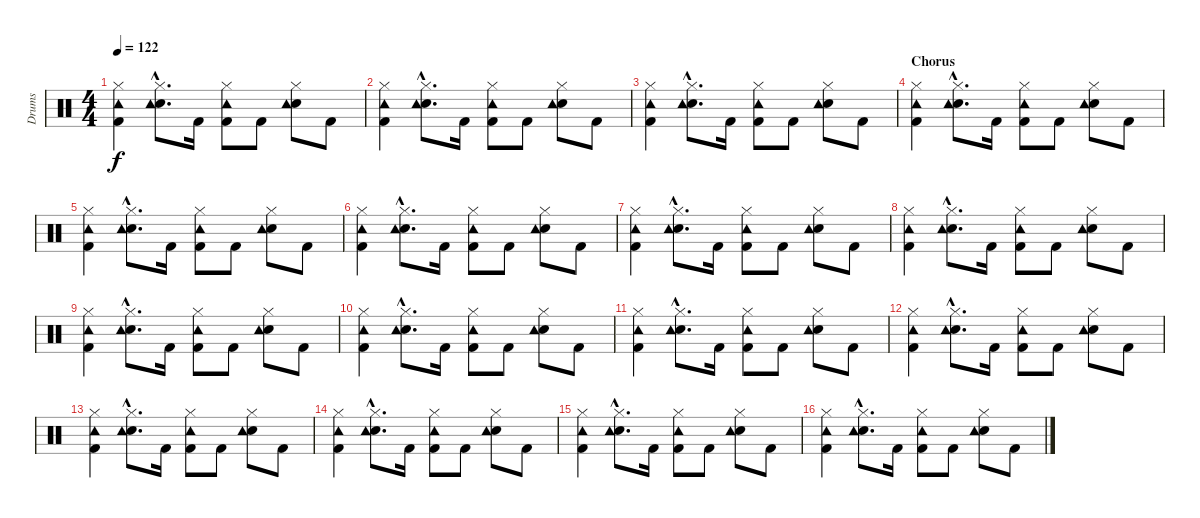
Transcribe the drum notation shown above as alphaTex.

\track ("Drums" "Drums") {instrument percussion}
\staff {score}
\articulation defaults
\ts (4 4)
\tempo 122
\clef neutral
\ks c
("Hi-Hat (closed)" "Kick (hit) 2" "Tambourine (hit)").4{dy f} ("Hi-Hat (closed)"{hac} "Electric Snare (hit)"{hac} "Tambourine (hit)"{hac}).8{d} "Kick (hit) 2".16 ("Hi-Hat (closed)" "Kick (hit) 2" "Tambourine (hit)").8 "Kick (hit) 2".8 ("Hi-Hat (closed)" "Electric Snare (hit)" "Tambourine (hit)").8 "Kick (hit) 2".8 |
("Hi-Hat (closed)" "Kick (hit) 2" "Tambourine (hit)").4 ("Hi-Hat (closed)"{hac} "Electric Snare (hit)"{hac} "Tambourine (hit)"{hac}).8{d} "Kick (hit) 2".16 ("Hi-Hat (closed)" "Kick (hit) 2" "Tambourine (hit)").8 "Kick (hit) 2".8 ("Hi-Hat (closed)" "Electric Snare (hit)" "Tambourine (hit)").8 "Kick (hit) 2".8 |
("Hi-Hat (closed)" "Kick (hit) 2" "Tambourine (hit)").4 ("Hi-Hat (closed)"{hac} "Electric Snare (hit)"{hac} "Tambourine (hit)"{hac}).8{d} "Kick (hit) 2".16 ("Hi-Hat (closed)" "Kick (hit) 2" "Tambourine (hit)").8 "Kick (hit) 2".8 ("Hi-Hat (closed)" "Electric Snare (hit)" "Tambourine (hit)").8 "Kick (hit) 2".8 |
\section ("" "Chorus")
("Hi-Hat (closed)" "Kick (hit) 2" "Tambourine (hit)").4 ("Hi-Hat (closed)"{hac} "Electric Snare (hit)"{hac} "Tambourine (hit)"{hac}).8{d} "Kick (hit) 2".16 ("Hi-Hat (closed)" "Kick (hit) 2" "Tambourine (hit)").8 "Kick (hit) 2".8 ("Hi-Hat (closed)" "Electric Snare (hit)" "Tambourine (hit)").8 "Kick (hit) 2".8 |
("Hi-Hat (closed)" "Kick (hit) 2" "Tambourine (hit)").4 ("Hi-Hat (closed)"{hac} "Electric Snare (hit)"{hac} "Tambourine (hit)"{hac}).8{d} "Kick (hit) 2".16 ("Hi-Hat (closed)" "Kick (hit) 2" "Tambourine (hit)").8 "Kick (hit) 2".8 ("Hi-Hat (closed)" "Electric Snare (hit)" "Tambourine (hit)").8 "Kick (hit) 2".8 |
("Hi-Hat (closed)" "Kick (hit) 2" "Tambourine (hit)").4 ("Hi-Hat (closed)"{hac} "Electric Snare (hit)"{hac} "Tambourine (hit)"{hac}).8{d} "Kick (hit) 2".16 ("Hi-Hat (closed)" "Kick (hit) 2" "Tambourine (hit)").8 "Kick (hit) 2".8 ("Hi-Hat (closed)" "Electric Snare (hit)" "Tambourine (hit)").8 "Kick (hit) 2".8 |
("Hi-Hat (closed)" "Kick (hit) 2" "Tambourine (hit)").4 ("Hi-Hat (closed)"{hac} "Electric Snare (hit)"{hac} "Tambourine (hit)"{hac}).8{d} "Kick (hit) 2".16 ("Hi-Hat (closed)" "Kick (hit) 2" "Tambourine (hit)").8 "Kick (hit) 2".8 ("Hi-Hat (closed)" "Electric Snare (hit)" "Tambourine (hit)").8 "Kick (hit) 2".8 |
("Hi-Hat (closed)" "Kick (hit) 2" "Tambourine (hit)").4 ("Hi-Hat (closed)"{hac} "Electric Snare (hit)"{hac} "Tambourine (hit)"{hac}).8{d} "Kick (hit) 2".16 ("Hi-Hat (closed)" "Kick (hit) 2" "Tambourine (hit)").8 "Kick (hit) 2".8 ("Hi-Hat (closed)" "Electric Snare (hit)" "Tambourine (hit)").8 "Kick (hit) 2".8 |
("Hi-Hat (closed)" "Kick (hit) 2" "Tambourine (hit)").4 ("Hi-Hat (closed)"{hac} "Electric Snare (hit)"{hac} "Tambourine (hit)"{hac}).8{d} "Kick (hit) 2".16 ("Hi-Hat (closed)" "Kick (hit) 2" "Tambourine (hit)").8 "Kick (hit) 2".8 ("Hi-Hat (closed)" "Electric Snare (hit)" "Tambourine (hit)").8 "Kick (hit) 2".8 |
("Hi-Hat (closed)" "Kick (hit) 2" "Tambourine (hit)").4 ("Hi-Hat (closed)"{hac} "Electric Snare (hit)"{hac} "Tambourine (hit)"{hac}).8{d} "Kick (hit) 2".16 ("Hi-Hat (closed)" "Kick (hit) 2" "Tambourine (hit)").8 "Kick (hit) 2".8 ("Hi-Hat (closed)" "Electric Snare (hit)" "Tambourine (hit)").8 "Kick (hit) 2".8 |
("Hi-Hat (closed)" "Kick (hit) 2" "Tambourine (hit)").4 ("Hi-Hat (closed)"{hac} "Electric Snare (hit)"{hac} "Tambourine (hit)"{hac}).8{d} "Kick (hit) 2".16 ("Hi-Hat (closed)" "Kick (hit) 2" "Tambourine (hit)").8 "Kick (hit) 2".8 ("Hi-Hat (closed)" "Electric Snare (hit)" "Tambourine (hit)").8 "Kick (hit) 2".8 |
("Hi-Hat (closed)" "Kick (hit) 2" "Tambourine (hit)").4 ("Hi-Hat (closed)"{hac} "Electric Snare (hit)"{hac} "Tambourine (hit)"{hac}).8{d} "Kick (hit) 2".16 ("Hi-Hat (closed)" "Kick (hit) 2" "Tambourine (hit)").8 "Kick (hit) 2".8 ("Hi-Hat (closed)" "Electric Snare (hit)" "Tambourine (hit)").8 "Kick (hit) 2".8 |
("Hi-Hat (closed)" "Kick (hit) 2" "Tambourine (hit)").4 ("Hi-Hat (closed)"{hac} "Electric Snare (hit)"{hac} "Tambourine (hit)"{hac}).8{d} "Kick (hit) 2".16 ("Hi-Hat (closed)" "Kick (hit) 2" "Tambourine (hit)").8 "Kick (hit) 2".8 ("Hi-Hat (closed)" "Electric Snare (hit)" "Tambourine (hit)").8 "Kick (hit) 2".8 |
("Hi-Hat (closed)" "Kick (hit) 2" "Tambourine (hit)").4 ("Hi-Hat (closed)"{hac} "Electric Snare (hit)"{hac} "Tambourine (hit)"{hac}).8{d} "Kick (hit) 2".16 ("Hi-Hat (closed)" "Kick (hit) 2" "Tambourine (hit)").8 "Kick (hit) 2".8 ("Hi-Hat (closed)" "Electric Snare (hit)" "Tambourine (hit)").8 "Kick (hit) 2".8 |
("Hi-Hat (closed)" "Kick (hit) 2" "Tambourine (hit)").4 ("Hi-Hat (closed)"{hac} "Electric Snare (hit)"{hac} "Tambourine (hit)"{hac}).8{d} "Kick (hit) 2".16 ("Hi-Hat (closed)" "Kick (hit) 2" "Tambourine (hit)").8 "Kick (hit) 2".8 ("Hi-Hat (closed)" "Electric Snare (hit)" "Tambourine (hit)").8 "Kick (hit) 2".8 |
("Hi-Hat (closed)" "Kick (hit) 2" "Tambourine (hit)").4 ("Hi-Hat (closed)"{hac} "Electric Snare (hit)"{hac} "Tambourine (hit)"{hac}).8{d} "Kick (hit) 2".16 ("Hi-Hat (closed)" "Kick (hit) 2" "Tambourine (hit)").8 "Kick (hit) 2".8 ("Hi-Hat (closed)" "Electric Snare (hit)" "Tambourine (hit)").8 "Kick (hit) 2".8
